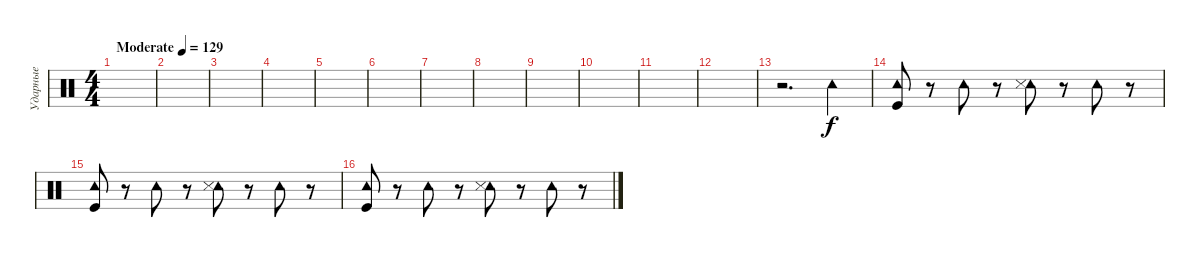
\track ("Ударные" "Ударные") {instrument percussion}
\staff {score}
\articulation defaults
\ts (4 4)
\tempo (129 "Moderate")
\clef neutral
\ks c
|
|
|
|
|
|
|
|
|
|
|
|
r.2{d} "Tambourine (hit)".4 |
("Tambourine (hit)" "Kick (hit)").8 r.8 "Tambourine (hit)".8 r.8 ("Tambourine (hit)" "Snare (side stick) 3").8 r.8 "Tambourine (hit)".8 r.8 |
("Tambourine (hit)" "Kick (hit)").8 r.8 "Tambourine (hit)".8 r.8 ("Tambourine (hit)" "Snare (side stick) 3").8 r.8 "Tambourine (hit)".8 r.8 |
("Tambourine (hit)" "Kick (hit)").8 r.8 "Tambourine (hit)".8 r.8 ("Tambourine (hit)" "Snare (side stick) 3").8 r.8 "Tambourine (hit)".8 r.8
